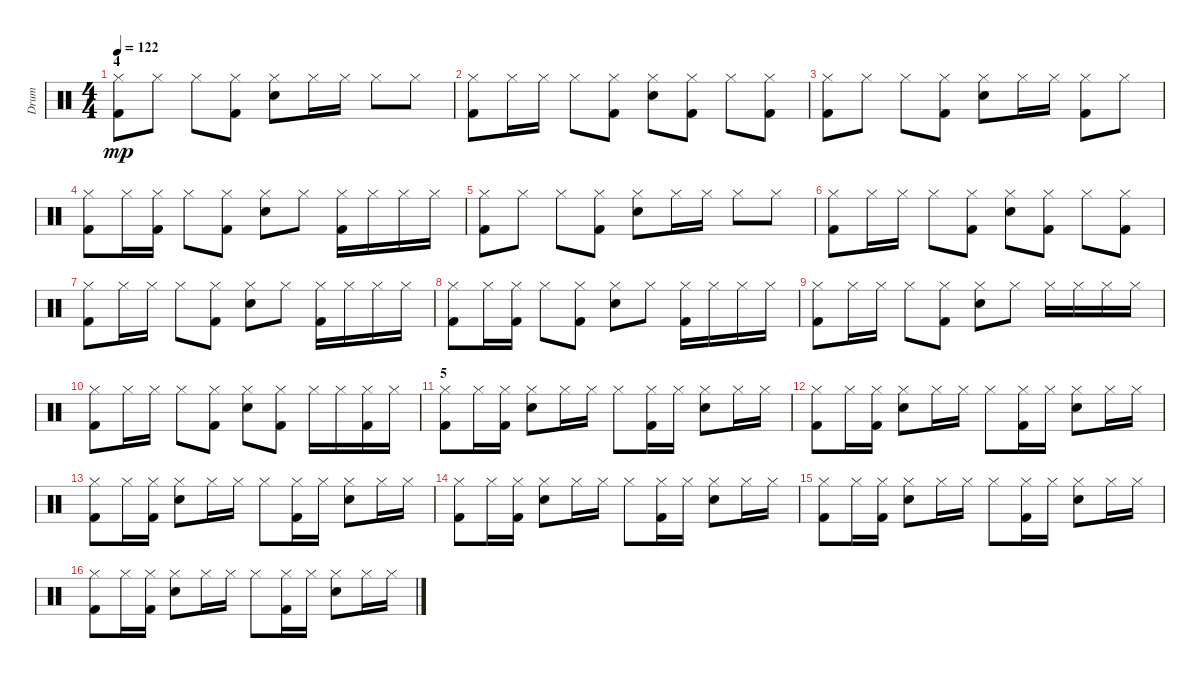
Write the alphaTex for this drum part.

\track ("Drum" "Drum") {instrument percussion}
\staff {score}
\articulation defaults
\ts (4 4)
\section ("" "4")
\tempo 122
\clef neutral
\ks c
("Hi-Hat (closed)" "Kick (hit) 2").8{dy mp volume 12} "Hi-Hat (closed)".8 "Hi-Hat (closed)".8 ("Hi-Hat (closed)" "Kick (hit) 2").8 ("Hi-Hat (closed)" "Hand Clap (hit)").8 "Hi-Hat (closed)".16 "Hi-Hat (closed)".16 "Hi-Hat (closed)".8 "Hi-Hat (closed)".8 |
("Hi-Hat (closed)" "Kick (hit) 2").8 "Hi-Hat (closed)".16 "Hi-Hat (closed)".16 "Hi-Hat (closed)".8 ("Hi-Hat (closed)" "Kick (hit) 2").8 ("Hi-Hat (closed)" "Hand Clap (hit)").8 ("Hi-Hat (closed)" "Kick (hit) 2").8 "Hi-Hat (closed)".8 ("Hi-Hat (closed)" "Kick (hit) 2").8 |
("Hi-Hat (closed)" "Kick (hit) 2").8 "Hi-Hat (closed)".8 "Hi-Hat (closed)".8 ("Hi-Hat (closed)" "Kick (hit) 2").8 ("Hi-Hat (closed)" "Hand Clap (hit)").8 "Hi-Hat (closed)".16 "Hi-Hat (closed)".16 ("Hi-Hat (closed)" "Kick (hit) 2").8 "Hi-Hat (closed)".8 |
("Hi-Hat (closed)" "Kick (hit) 2").8 "Hi-Hat (closed)".16 ("Hi-Hat (closed)" "Kick (hit) 2").16 "Hi-Hat (closed)".8 ("Hi-Hat (closed)" "Kick (hit) 2").8 ("Hi-Hat (closed)" "Hand Clap (hit)").8 "Hi-Hat (closed)".8 ("Hi-Hat (closed)" "Kick (hit) 2").16 "Hi-Hat (closed)".16 "Hi-Hat (closed)".16 "Hi-Hat (closed)".16 |
("Hi-Hat (closed)" "Kick (hit) 2").8 "Hi-Hat (closed)".8 "Hi-Hat (closed)".8 ("Hi-Hat (closed)" "Kick (hit) 2").8 ("Hi-Hat (closed)" "Hand Clap (hit)").8 "Hi-Hat (closed)".16 "Hi-Hat (closed)".16 "Hi-Hat (closed)".8 "Hi-Hat (closed)".8 |
("Hi-Hat (closed)" "Kick (hit) 2").8 "Hi-Hat (closed)".16 "Hi-Hat (closed)".16 "Hi-Hat (closed)".8 ("Hi-Hat (closed)" "Kick (hit) 2").8 ("Hi-Hat (closed)" "Hand Clap (hit)").8 ("Hi-Hat (closed)" "Kick (hit) 2").8 "Hi-Hat (closed)".8 ("Hi-Hat (closed)" "Kick (hit) 2").8 |
("Hi-Hat (closed)" "Kick (hit) 2").8 "Hi-Hat (closed)".16 "Hi-Hat (closed)".16 "Hi-Hat (closed)".8 ("Hi-Hat (closed)" "Kick (hit) 2").8 ("Hi-Hat (closed)" "Hand Clap (hit)").8 "Hi-Hat (closed)".8 ("Hi-Hat (closed)" "Kick (hit) 2").16 "Hi-Hat (closed)".16 "Hi-Hat (closed)".16 "Hi-Hat (closed)".16 |
("Hi-Hat (closed)" "Kick (hit) 2").8 "Hi-Hat (closed)".16 ("Hi-Hat (closed)" "Kick (hit) 2").16 "Hi-Hat (closed)".8 ("Hi-Hat (closed)" "Kick (hit) 2").8 ("Hi-Hat (closed)" "Hand Clap (hit)").8 "Hi-Hat (closed)".8 ("Hi-Hat (closed)" "Kick (hit) 2").16 "Hi-Hat (closed)".16 "Hi-Hat (closed)".16 "Hi-Hat (closed)".16 |
("Hi-Hat (closed)" "Kick (hit) 2").8 "Hi-Hat (closed)".16 "Hi-Hat (closed)".16 "Hi-Hat (closed)".8 ("Hi-Hat (closed)" "Kick (hit) 2").8 ("Hi-Hat (closed)" "Hand Clap (hit)").8 "Hi-Hat (closed)".8 "Hi-Hat (closed)".16 "Hi-Hat (closed)".16 "Hi-Hat (closed)".16 "Hi-Hat (closed)".16 |
("Hi-Hat (closed)" "Kick (hit) 2").8 "Hi-Hat (closed)".16 "Hi-Hat (closed)".16 "Hi-Hat (closed)".8 ("Hi-Hat (closed)" "Kick (hit) 2").8 ("Hi-Hat (closed)" "Hand Clap (hit)").8 ("Hi-Hat (closed)" "Kick (hit) 2").8 "Hi-Hat (closed)".16 "Hi-Hat (closed)".16 ("Hi-Hat (closed)" "Kick (hit) 2").16 "Hi-Hat (closed)".16 |
\section ("" "5")
("Hi-Hat (closed)" "Kick (hit) 2").8 "Hi-Hat (closed)".16 ("Hi-Hat (closed)" "Kick (hit) 2").16 ("Hi-Hat (closed)" "Electric Snare (hit)").8 "Hi-Hat (closed)".16 "Hi-Hat (closed)".16 "Hi-Hat (closed)".8 ("Hi-Hat (closed)" "Kick (hit) 2").16 "Hi-Hat (closed)".16 ("Hi-Hat (closed)" "Electric Snare (hit)").8 "Hi-Hat (closed)".16 "Hi-Hat (closed)".16 |
("Hi-Hat (closed)" "Kick (hit) 2").8 "Hi-Hat (closed)".16 ("Hi-Hat (closed)" "Kick (hit) 2").16 ("Hi-Hat (closed)" "Electric Snare (hit)").8 "Hi-Hat (closed)".16 "Hi-Hat (closed)".16 "Hi-Hat (closed)".8 ("Hi-Hat (closed)" "Kick (hit) 2").16 "Hi-Hat (closed)".16 ("Hi-Hat (closed)" "Electric Snare (hit)").8 "Hi-Hat (closed)".16 "Hi-Hat (closed)".16 |
("Hi-Hat (closed)" "Kick (hit) 2").8 "Hi-Hat (closed)".16 ("Hi-Hat (closed)" "Kick (hit) 2").16 ("Hi-Hat (closed)" "Electric Snare (hit)").8 "Hi-Hat (closed)".16 "Hi-Hat (closed)".16 "Hi-Hat (closed)".8 ("Hi-Hat (closed)" "Kick (hit) 2").16 "Hi-Hat (closed)".16 ("Hi-Hat (closed)" "Electric Snare (hit)").8 "Hi-Hat (closed)".16 "Hi-Hat (closed)".16 |
("Hi-Hat (closed)" "Kick (hit) 2").8 "Hi-Hat (closed)".16 ("Hi-Hat (closed)" "Kick (hit) 2").16 ("Hi-Hat (closed)" "Electric Snare (hit)").8 "Hi-Hat (closed)".16 "Hi-Hat (closed)".16 "Hi-Hat (closed)".8 ("Hi-Hat (closed)" "Kick (hit) 2").16 "Hi-Hat (closed)".16 ("Hi-Hat (closed)" "Electric Snare (hit)").8 "Hi-Hat (closed)".16 "Hi-Hat (closed)".16 |
("Hi-Hat (closed)" "Kick (hit) 2").8 "Hi-Hat (closed)".16 ("Hi-Hat (closed)" "Kick (hit) 2").16 ("Hi-Hat (closed)" "Electric Snare (hit)").8 "Hi-Hat (closed)".16 "Hi-Hat (closed)".16 "Hi-Hat (closed)".8 ("Hi-Hat (closed)" "Kick (hit) 2").16 "Hi-Hat (closed)".16 ("Hi-Hat (closed)" "Electric Snare (hit)").8 "Hi-Hat (closed)".16 "Hi-Hat (closed)".16 |
("Hi-Hat (closed)" "Kick (hit) 2").8 "Hi-Hat (closed)".16 ("Hi-Hat (closed)" "Kick (hit) 2").16 ("Hi-Hat (closed)" "Electric Snare (hit)").8 "Hi-Hat (closed)".16 "Hi-Hat (closed)".16 "Hi-Hat (closed)".8 ("Hi-Hat (closed)" "Kick (hit) 2").16 "Hi-Hat (closed)".16 ("Hi-Hat (closed)" "Electric Snare (hit)").8 "Hi-Hat (closed)".16 "Hi-Hat (closed)".16
